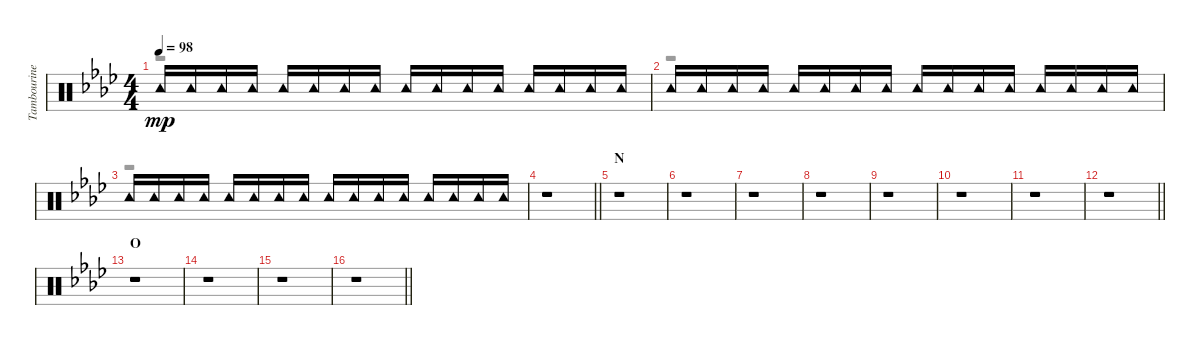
\track ("Tambourine" "Tambourine") {instrument percussion}
\staff {score}
\articulation defaults
\voice
\ts (4 4)
\tempo 98
\clef neutral
\ks ab "Tambourine (hit)".16{dy mp} "Tambourine (hit)".16 "Tambourine (hit)".16 "Tambourine (hit)".16 "Tambourine (hit)".16 "Tambourine (hit)".16 "Tambourine (hit)".16 "Tambourine (hit)".16 "Tambourine (hit)".16 "Tambourine (hit)".16 "Tambourine (hit)".16 "Tambourine (hit)".16 "Tambourine (hit)".16 "Tambourine (hit)".16 "Tambourine (hit)".16 "Tambourine (hit)".16
|
"Tambourine (hit)".16 "Tambourine (hit)".16 "Tambourine (hit)".16 "Tambourine (hit)".16 "Tambourine (hit)".16 "Tambourine (hit)".16 "Tambourine (hit)".16 "Tambourine (hit)".16 "Tambourine (hit)".16 "Tambourine (hit)".16 "Tambourine (hit)".16 "Tambourine (hit)".16 "Tambourine (hit)".16 "Tambourine (hit)".16 "Tambourine (hit)".16 "Tambourine (hit)".16 |
"Tambourine (hit)".16 "Tambourine (hit)".16 "Tambourine (hit)".16 "Tambourine (hit)".16 "Tambourine (hit)".16 "Tambourine (hit)".16 "Tambourine (hit)".16 "Tambourine (hit)".16 "Tambourine (hit)".16 "Tambourine (hit)".16 "Tambourine (hit)".16 "Tambourine (hit)".16 "Tambourine (hit)".16 "Tambourine (hit)".16 "Tambourine (hit)".16 "Tambourine (hit)".16 |
\barLineRight lightlight
r.1 |
\section ("" "N")
r.1 |
r.1 |
r.1 |
r.1 |
r.1 |
r.1 |
r.1 |
\barLineRight lightlight
r.1 |
\section ("" "O")
r.1 |
r.1 |
r.1 |
\barLineRight lightlight
r.1
\voice
\clef neutral
\ottava regular
\simile none
\ks ab
r.1{dy f} |
r.1 |
r.1 |
\barLineRight lightlight
r.1 |
r.1 |
r.1 |
r.1 |
r.1 |
r.1 |
r.1 |
r.1 |
\barLineRight lightlight
r.1 |
r.1 |
r.1 |
r.1 |
\barLineRight lightlight
r.1
